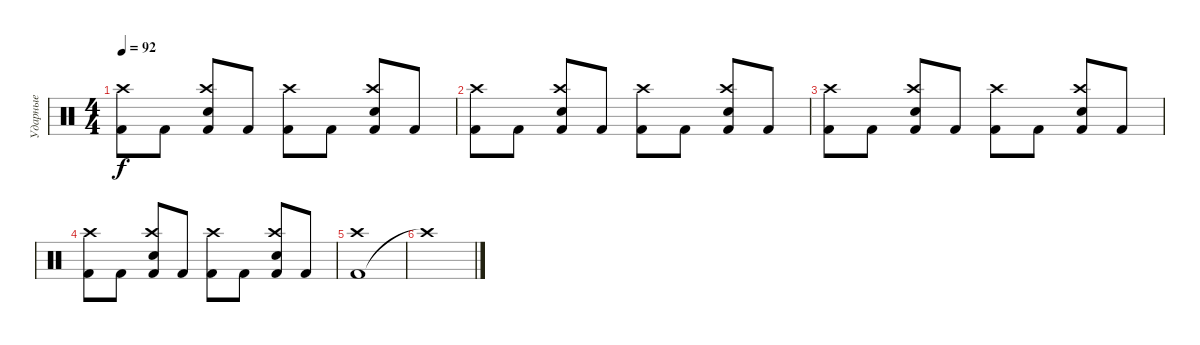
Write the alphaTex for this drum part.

\track ("Ударные" "Ударные") {instrument percussion}
\staff {score}
\articulation defaults
\ts (4 4)
\tempo 92
\clef neutral
\ks c
("Kick (hit) 2" "Crash high (hit)").8{dy f} "Kick (hit) 2".8 ("Kick (hit) 2" "Snare (hit) 2" "Crash high (hit)").8 "Kick (hit) 2".8 ("Kick (hit) 2" "Crash high (hit)").8 "Kick (hit) 2".8 ("Kick (hit) 2" "Snare (hit) 2" "Crash high (hit)").8 "Kick (hit) 2".8 |
("Kick (hit) 2" "Crash high (hit)").8 "Kick (hit) 2".8 ("Kick (hit) 2" "Snare (hit) 2" "Crash high (hit)").8 "Kick (hit) 2".8 ("Kick (hit) 2" "Crash high (hit)").8 "Kick (hit) 2".8 ("Kick (hit) 2" "Snare (hit) 2" "Crash high (hit)").8 "Kick (hit) 2".8 |
("Kick (hit) 2" "Crash high (hit)").8 "Kick (hit) 2".8 ("Kick (hit) 2" "Snare (hit) 2" "Crash high (hit)").8 "Kick (hit) 2".8 ("Kick (hit) 2" "Crash high (hit)").8 "Kick (hit) 2".8 ("Kick (hit) 2" "Snare (hit) 2" "Crash high (hit)").8 "Kick (hit) 2".8 |
("Kick (hit) 2" "Crash high (hit)").8 "Kick (hit) 2".8 ("Kick (hit) 2" "Snare (hit) 2" "Crash high (hit)").8 "Kick (hit) 2".8 ("Kick (hit) 2" "Crash high (hit)").8 "Kick (hit) 2".8 ("Kick (hit) 2" "Snare (hit) 2" "Crash high (hit)").8 "Kick (hit) 2".8 |
("Kick (hit) 2" "Crash high (hit)").1 |
"Crash high (hit)"{t}.1
